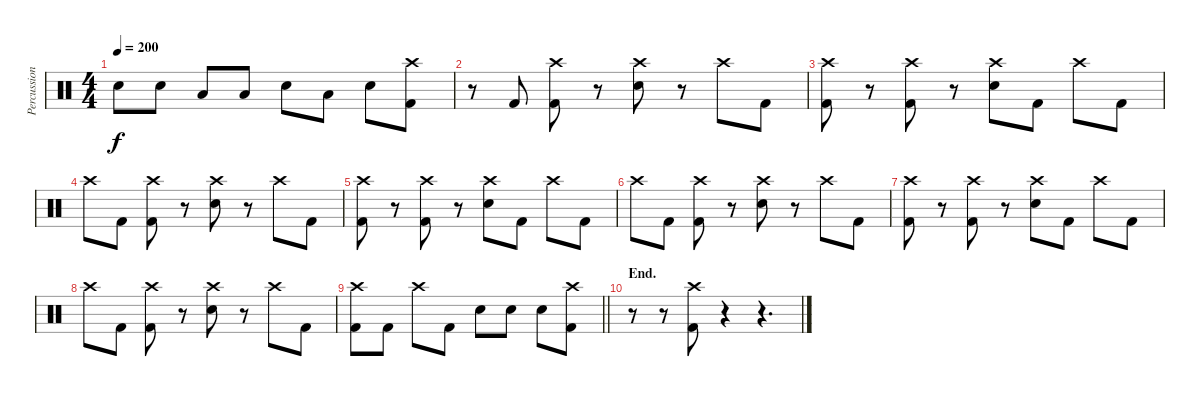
\track ("Percussion" "Percussion") {instrument percussion}
\staff {score}
\articulation defaults
\ts (4 4)
\tempo 200
\clef neutral
\ks c "Electric Snare (hit)".8{dy f} "Electric Snare (hit)".8 "Low Tom (hit)".8 "Low Tom (hit)".8 "Electric Snare (hit)".8 "Low Tom (hit)".8 "Electric Snare (hit)".8
("Crash high (hit)" "Kick (hit) 2").8 |
r.8 "Kick (hit) 2".8 ("Crash high (hit)" "Kick (hit) 2").8 r.8 ("Crash high (hit)" "Electric Snare (hit)").8 r.8 "Crash high (hit)".8 "Kick (hit) 2".8 |
("Crash high (hit)" "Kick (hit) 2").8 r.8 ("Crash high (hit)" "Kick (hit) 2").8 r.8 ("Crash high (hit)" "Electric Snare (hit)").8 "Kick (hit) 2".8 "Crash high (hit)".8 "Kick (hit) 2".8 |
"Crash high (hit)".8 "Kick (hit) 2".8 ("Crash high (hit)" "Kick (hit) 2").8 r.8 ("Crash high (hit)" "Electric Snare (hit)").8 r.8 "Crash high (hit)".8 "Kick (hit) 2".8 |
("Crash high (hit)" "Kick (hit) 2").8 r.8 ("Crash high (hit)" "Kick (hit) 2").8 r.8 ("Crash high (hit)" "Electric Snare (hit)").8 "Kick (hit) 2".8 "Crash high (hit)".8 "Kick (hit) 2".8 |
"Crash high (hit)".8 "Kick (hit) 2".8 ("Crash high (hit)" "Kick (hit) 2").8 r.8 ("Crash high (hit)" "Electric Snare (hit)").8 r.8 "Crash high (hit)".8 "Kick (hit) 2".8 |
("Crash high (hit)" "Kick (hit) 2").8 r.8 ("Crash high (hit)" "Kick (hit) 2").8 r.8 ("Crash high (hit)" "Electric Snare (hit)").8 "Kick (hit) 2".8 "Crash high (hit)".8 "Kick (hit) 2".8 |
"Crash high (hit)".8 "Kick (hit) 2".8 ("Crash high (hit)" "Kick (hit) 2").8 r.8 ("Crash high (hit)" "Electric Snare (hit)").8 r.8 "Crash high (hit)".8 "Kick (hit) 2".8 |
\barLineRight lightlight
("Crash high (hit)" "Kick (hit) 2").8 "Kick (hit) 2".8 "Crash high (hit)".8 "Kick (hit) 2".8 "Electric Snare (hit)".8 "Electric Snare (hit)".8 "Electric Snare (hit)".8 ("Crash high (hit)" "Kick (hit) 2").8 |
\section ("" "End.")
r.8 r.8 ("Crash high (hit)" "Kick (hit) 2").8 r.4 r.4{d}
